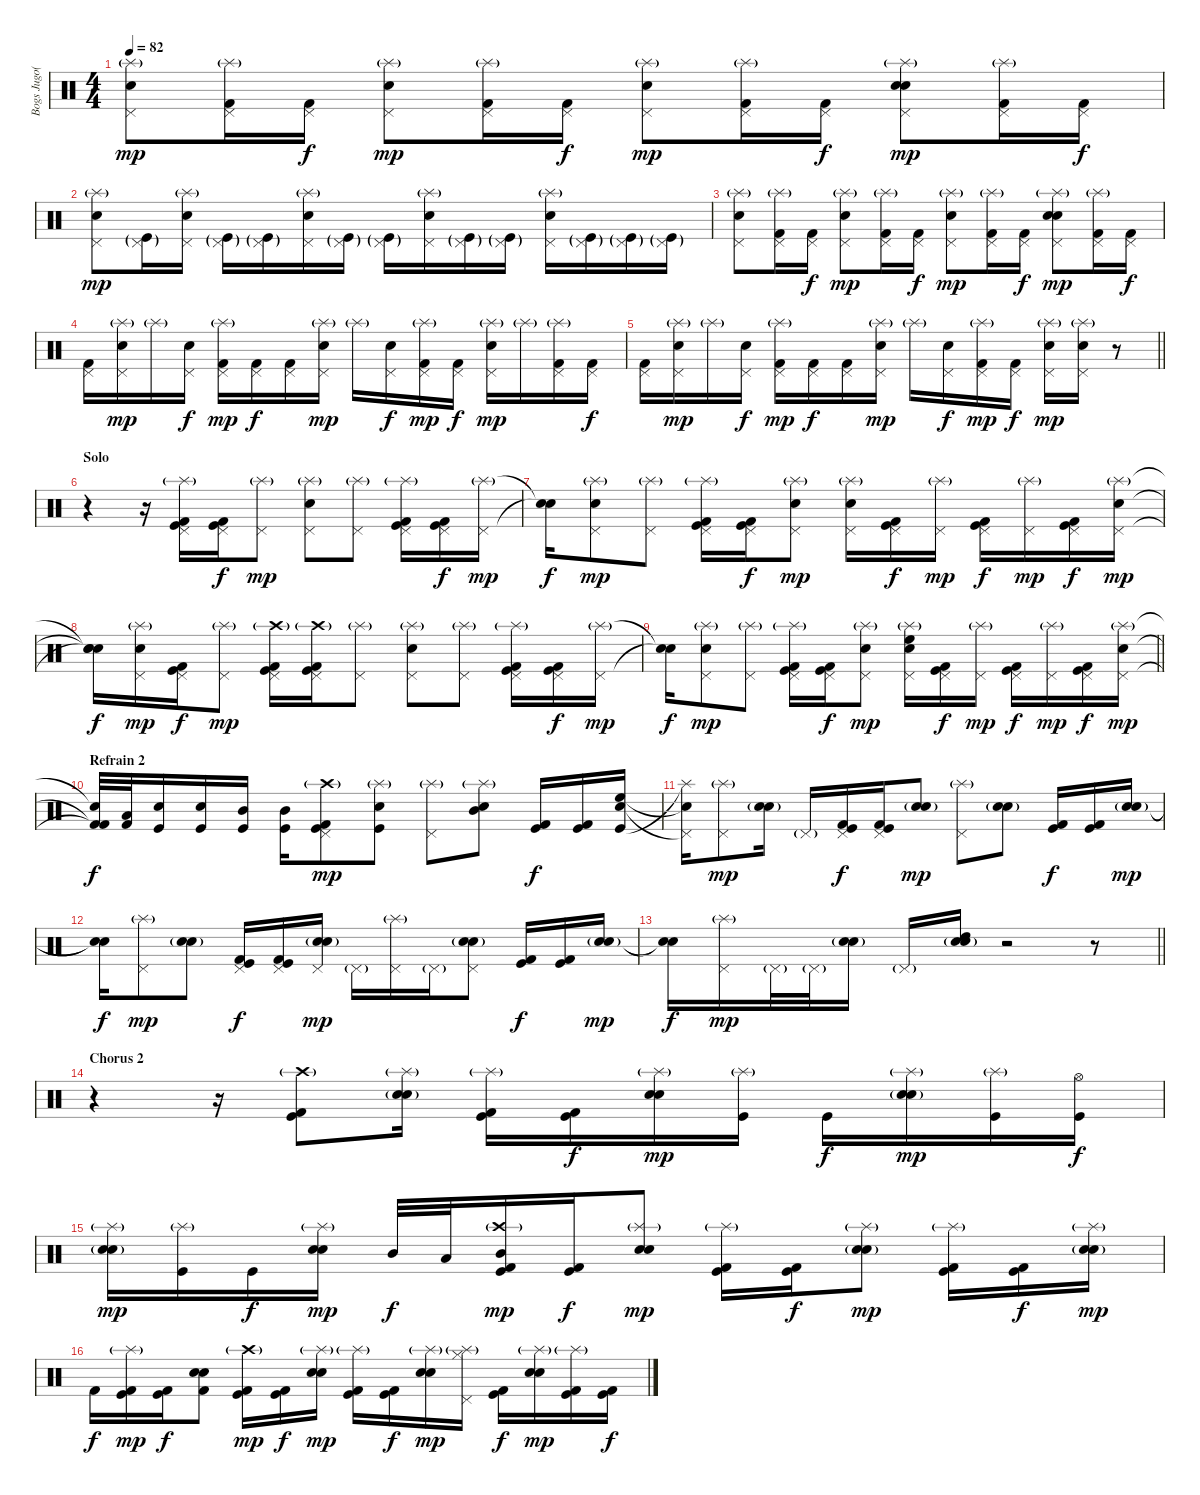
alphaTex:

\track ("Bogs Jugo(Drums)" "Bogs Jugo(") {instrument percussion}
\staff {score}
\articulation defaults
\ts (4 4)
\tempo 82
\clef neutral
\ks c
("Pedal Hi-Hat (hit)" "Electric Snare (hit)" "Splash (hit)"{g}).8{dy mp} ("Pedal Hi-Hat (hit)" "Kick (hit) 2" "Splash (hit)"{g}).16 ("Pedal Hi-Hat (hit)" "Kick (hit) 2").16{dy f} ("Pedal Hi-Hat (hit)" "Electric Snare (hit)" "Splash (hit)"{g}).8{dy mp} ("Pedal Hi-Hat (hit)" "Kick (hit) 2" "Splash (hit)"{g}).16 ("Pedal Hi-Hat (hit)" "Kick (hit) 2").16{dy f} ("Pedal Hi-Hat (hit)" "Electric Snare (hit)" "Splash (hit)"{g}).8{dy mp} ("Pedal Hi-Hat (hit)" "Kick (hit) 2" "Splash (hit)"{g}).16 ("Pedal Hi-Hat (hit)" "Kick (hit) 2").16{dy f} ("Pedal Hi-Hat (hit)" "Electric Snare (hit)" "Electric Snare (hit)" "Splash (hit)"{g}).8{dy mp} ("Pedal Hi-Hat (hit)" "Kick (hit) 2" "Splash (hit)"{g}).16 ("Pedal Hi-Hat (hit)" "Kick (hit) 2").16{dy f} |
("Pedal Hi-Hat (hit)" "Electric Snare (hit)" "Splash (hit)"{g}).8{dy mp} ("Pedal Hi-Hat (hit)"{g} "Kick (hit)"{g}).16 ("Pedal Hi-Hat (hit)" "Electric Snare (hit)" "Splash (hit)"{g}).16 ("Pedal Hi-Hat (hit)"{g} "Kick (hit)"{g}).16 ("Pedal Hi-Hat (hit)"{g} "Kick (hit)"{g}).16 ("Pedal Hi-Hat (hit)" "Electric Snare (hit)" "Splash (hit)"{g}).16 ("Pedal Hi-Hat (hit)"{g} "Kick (hit)"{g}).16 ("Pedal Hi-Hat (hit)"{g} "Kick (hit)"{g}).16 ("Pedal Hi-Hat (hit)" "Electric Snare (hit)" "Splash (hit)"{g}).16 ("Pedal Hi-Hat (hit)"{g} "Kick (hit)"{g}).16 ("Pedal Hi-Hat (hit)"{g} "Kick (hit)"{g}).16 ("Pedal Hi-Hat (hit)" "Electric Snare (hit)" "Splash (hit)"{g}).16 ("Pedal Hi-Hat (hit)"{g} "Kick (hit)"{g}).16 ("Pedal Hi-Hat (hit)"{g} "Kick (hit)"{g}).16 ("Pedal Hi-Hat (hit)"{g} "Kick (hit)"{g}).16 |
("Pedal Hi-Hat (hit)" "Electric Snare (hit)" "Splash (hit)"{g}).8 ("Pedal Hi-Hat (hit)" "Kick (hit) 2" "Splash (hit)"{g}).16 ("Pedal Hi-Hat (hit)" "Kick (hit) 2").16{dy f} ("Pedal Hi-Hat (hit)" "Electric Snare (hit)" "Splash (hit)"{g}).8{dy mp} ("Pedal Hi-Hat (hit)" "Kick (hit) 2" "Splash (hit)"{g}).16 ("Pedal Hi-Hat (hit)" "Kick (hit) 2").16{dy f} ("Pedal Hi-Hat (hit)" "Electric Snare (hit)" "Splash (hit)"{g}).8{dy mp} ("Pedal Hi-Hat (hit)" "Kick (hit) 2" "Splash (hit)"{g}).16 ("Pedal Hi-Hat (hit)" "Kick (hit) 2").16{dy f} ("Pedal Hi-Hat (hit)" "Electric Snare (hit)" "Electric Snare (hit)" "Splash (hit)"{g}).8{dy mp} ("Pedal Hi-Hat (hit)" "Kick (hit) 2" "Splash (hit)"{g}).16 ("Pedal Hi-Hat (hit)" "Kick (hit) 2").16{dy f} |
("Pedal Hi-Hat (hit)" "Kick (hit) 2").16 ("Pedal Hi-Hat (hit)" "Electric Snare (hit)" "Splash (hit)"{g}).16{dy mp} "Splash (hit)"{g}.16 ("Pedal Hi-Hat (hit)" "Electric Snare (hit)").16{dy f} ("Pedal Hi-Hat (hit)" "Kick (hit) 2" "Splash (hit)"{g}).16{dy mp} ("Pedal Hi-Hat (hit)" "Kick (hit) 2").16{dy f} ("Pedal Hi-Hat (hit)" "Kick (hit) 2").16 ("Pedal Hi-Hat (hit)" "Electric Snare (hit)" "Splash (hit)"{g}).16{dy mp} "Splash (hit)"{g}.16 ("Pedal Hi-Hat (hit)" "Electric Snare (hit)").16{dy f} ("Pedal Hi-Hat (hit)" "Kick (hit) 2" "Splash (hit)"{g}).16{dy mp} ("Pedal Hi-Hat (hit)" "Kick (hit) 2").16{dy f} ("Pedal Hi-Hat (hit)" "Electric Snare (hit)" "Splash (hit)"{g}).16{dy mp} "Splash (hit)"{g}.16 ("Pedal Hi-Hat (hit)" "Kick (hit) 2" "Splash (hit)"{g}).16 ("Pedal Hi-Hat (hit)" "Kick (hit) 2").16{dy f} |
\barLineRight lightlight
("Pedal Hi-Hat (hit)" "Kick (hit) 2").16 ("Pedal Hi-Hat (hit)" "Electric Snare (hit)" "Splash (hit)"{g}).16{dy mp} "Splash (hit)"{g}.16 ("Pedal Hi-Hat (hit)" "Electric Snare (hit)").16{dy f} ("Pedal Hi-Hat (hit)" "Kick (hit) 2" "Splash (hit)"{g}).16{dy mp} ("Pedal Hi-Hat (hit)" "Kick (hit) 2").16{dy f} ("Pedal Hi-Hat (hit)" "Kick (hit) 2").16 ("Pedal Hi-Hat (hit)" "Electric Snare (hit)" "Splash (hit)"{g}).16{dy mp} "Splash (hit)"{g}.16 ("Pedal Hi-Hat (hit)" "Electric Snare (hit)").16{dy f} ("Pedal Hi-Hat (hit)" "Kick (hit) 2" "Splash (hit)"{g}).16{dy mp} ("Pedal Hi-Hat (hit)" "Kick (hit) 2").16{dy f} ("Pedal Hi-Hat (hit)" "Electric Snare (hit)" "Splash (hit)"{g}).16{dy mp} ("Pedal Hi-Hat (hit)" "Electric Snare (hit)" "Splash (hit)"{g}).16 r.8 |
\section ("" "Solo")
r.4 r.16 ("Pedal Hi-Hat (hit)" "Kick (hit) 2" "Kick (hit)" "Splash (hit)"{g}).16 ("Pedal Hi-Hat (hit)" "Kick (hit) 2" "Kick (hit)").16{dy f} ("Pedal Hi-Hat (hit)" "Splash (hit)"{g}).8{dy mp} ("Pedal Hi-Hat (hit)" "Electric Snare (hit)" "Splash (hit)"{g}).8 ("Pedal Hi-Hat (hit)" "Splash (hit)"{g}).8 ("Pedal Hi-Hat (hit)" "Kick (hit) 2" "Kick (hit)" "Splash (hit)"{g}).16 ("Pedal Hi-Hat (hit)" "Kick (hit) 2" "Kick (hit)").16{dy f} ("Pedal Hi-Hat (hit)" "Splash (hit)"{g}).16{dy mp} |
("Snare (hit)"{t} "Snare (hit)"{t}).16{dy f} ("Pedal Hi-Hat (hit)" "Electric Snare (hit)" "Splash (hit)"{g}).8{dy mp} ("Pedal Hi-Hat (hit)" "Splash (hit)"{g}).8 ("Pedal Hi-Hat (hit)" "Kick (hit) 2" "Kick (hit)" "Splash (hit)"{g}).16 ("Pedal Hi-Hat (hit)" "Kick (hit) 2" "Kick (hit)").16{dy f} ("Pedal Hi-Hat (hit)" "Electric Snare (hit)" "Splash (hit)"{g}).8{dy mp} ("Pedal Hi-Hat (hit)" "Electric Snare (hit)" "Splash (hit)"{g}).16 ("Pedal Hi-Hat (hit)" "Kick (hit) 2" "Kick (hit)").16{dy f} ("Pedal Hi-Hat (hit)" "Splash (hit)"{g}).16{dy mp} ("Pedal Hi-Hat (hit)" "Kick (hit) 2" "Kick (hit)").16{dy f} ("Pedal Hi-Hat (hit)" "Splash (hit)"{g}).16{dy mp} ("Pedal Hi-Hat (hit)" "Kick (hit) 2" "Kick (hit)").16{dy f} ("Pedal Hi-Hat (hit)" "Electric Snare (hit)" "Splash (hit)"{g}).16{dy mp} |
("Snare (hit)"{t} "Snare (hit)"{t} "Snare (hit)"{t}).16{dy f} ("Pedal Hi-Hat (hit)" "Electric Snare (hit)" "Splash (hit)"{g}).16{dy mp} ("Pedal Hi-Hat (hit)" "Kick (hit) 2" "Kick (hit)").16{dy f} ("Pedal Hi-Hat (hit)" "Splash (hit)"{g}).8{dy mp} ("Pedal Hi-Hat (hit)" "Kick (hit) 2" "Kick (hit)" "Crash high (hit)"{g}).16 ("Pedal Hi-Hat (hit)" "Kick (hit) 2" "Kick (hit)" "Crash high (hit)"{g}).16 ("Pedal Hi-Hat (hit)" "Splash (hit)"{g}).8 ("Pedal Hi-Hat (hit)" "Electric Snare (hit)" "Splash (hit)"{g}).8 ("Pedal Hi-Hat (hit)" "Splash (hit)"{g}).8 ("Pedal Hi-Hat (hit)" "Kick (hit) 2" "Kick (hit)" "Splash (hit)"{g}).16 ("Pedal Hi-Hat (hit)" "Kick (hit) 2" "Kick (hit)").16{dy f} ("Pedal Hi-Hat (hit)" "Splash (hit)"{g}).16{dy mp} |
\barLineRight lightlight
("Snare (hit)"{t} "Snare (hit)"{t}).16{dy f} ("Pedal Hi-Hat (hit)" "Electric Snare (hit)" "Splash (hit)"{g}).8{dy mp} ("Pedal Hi-Hat (hit)" "Splash (hit)"{g}).8 ("Pedal Hi-Hat (hit)" "Kick (hit) 2" "Kick (hit)" "Splash (hit)"{g}).16 ("Pedal Hi-Hat (hit)" "Kick (hit) 2" "Kick (hit)").16{dy f} ("Pedal Hi-Hat (hit)" "Electric Snare (hit)" "Splash (hit)"{g}).8{dy mp} ("Pedal Hi-Hat (hit)" "Electric Snare (hit)" "Splash (hit)"{g} "High Floor Tom (hit)").16 ("Pedal Hi-Hat (hit)" "Kick (hit) 2" "Kick (hit)").16{dy f} ("Pedal Hi-Hat (hit)" "Splash (hit)"{g}).16{dy mp} ("Pedal Hi-Hat (hit)" "Kick (hit) 2" "Kick (hit)").16{dy f} ("Pedal Hi-Hat (hit)" "Splash (hit)"{g}).16{dy mp} ("Pedal Hi-Hat (hit)" "Kick (hit) 2" "Kick (hit)").16{dy f} ("Pedal Hi-Hat (hit)" "Electric Snare (hit)" "Splash (hit)"{g}).16{dy mp} |
\section ("" "Refrain 2")
("Kick (hit) 2"{t} "Kick (hit) 2"{t} "Snare (hit)"{t}).32{dy f} ("Low Tom (hit)" "Kick (hit) 2").32 ("Electric Snare (hit)" "Kick (hit)").16 ("Electric Snare (hit)" "Kick (hit)").16 ("Mid Tom (hit)" "Kick (hit)").16 ("Mid Tom (hit)" "Kick (hit)").16 ("Pedal Hi-Hat (hit)" "Kick (hit) 2" "Kick (hit)" "Crash high (hit)"{g}).8{dy mp} ("Electric Snare (hit)" "Kick (hit)" "Splash (hit)"{g}).8 ("Pedal Hi-Hat (hit)" "Splash (hit)"{g}).8 ("Electric Snare (hit)" "Mid Tom (hit)" "Splash (hit)"{g}).8 ("Kick (hit) 2" "Kick (hit)").16{dy f} ("Kick (hit) 2" "Kick (hit)").16 ("Electric Snare (hit)" "Kick (hit)" "High Floor Tom (hit)").16 |
("Pedal Hi-Hat (hit)"{t} "Splash (hit)"{t} "Snare (hit)"{t}).16 ("Pedal Hi-Hat (hit)" "Splash (hit)"{g}).8{dy mp} ("Electric Snare (hit)" "Snare (hit) 2"{g}).16 "Pedal Hi-Hat (hit)"{g}.16 ("Pedal Hi-Hat (hit)" "Kick (hit) 2" "Kick (hit)").16{dy f} ("Pedal Hi-Hat (hit)" "Kick (hit) 2" "Kick (hit)").16 ("Electric Snare (hit)" "Snare (hit) 2"{g}).8{dy mp} ("Pedal Hi-Hat (hit)" "Splash (hit)"{g}).8 ("Electric Snare (hit)" "Snare (hit) 2"{g}).8 ("Kick (hit) 2" "Kick (hit)").16{dy f} ("Kick (hit) 2" "Kick (hit)").16 ("Electric Snare (hit)" "Snare (hit) 2"{g}).16{dy mp} |
("Snare (hit)"{t} "Snare (hit)"{t}).16{dy f} ("Pedal Hi-Hat (hit)" "Splash (hit)"{g}).8{dy mp} ("Electric Snare (hit)" "Snare (hit) 2"{g}).8 ("Pedal Hi-Hat (hit)" "Kick (hit) 2" "Kick (hit)").16{dy f} ("Pedal Hi-Hat (hit)" "Kick (hit) 2" "Kick (hit)").16 ("Pedal Hi-Hat (hit)" "Electric Snare (hit)" "Snare (hit) 2"{g}).16{dy mp} "Pedal Hi-Hat (hit)"{g}.16 ("Pedal Hi-Hat (hit)" "Splash (hit)"{g}).16 "Pedal Hi-Hat (hit)"{g}.16 ("Pedal Hi-Hat (hit)" "Electric Snare (hit)" "Snare (hit) 2"{g}).8 ("Kick (hit) 2" "Kick (hit)").16{dy f} ("Kick (hit) 2" "Kick (hit)").16 ("Electric Snare (hit)" "Snare (hit) 2"{g}).16{dy mp} |
\barLineRight lightlight
("Snare (hit)"{t} "Snare (hit)"{t}).16{dy f} ("Pedal Hi-Hat (hit)" "Splash (hit)"{g}).16{dy mp} "Pedal Hi-Hat (hit)"{g}.32 "Pedal Hi-Hat (hit)"{g}.32 ("Electric Snare (hit)" "Snare (hit) 2"{g}).16 "Pedal Hi-Hat (hit)"{g}.16 ("Electric Snare (hit)" "Snare (hit) 2"{g} "High Tom (hit)").16 r.2 r.8 |
\section ("" "Chorus 2")
r.4 r.16 ("Crash high (hit)"{g} "Kick (hit) 2" "Kick (hit)").8 ("Electric Snare (hit)" "Snare (hit) 2"{g} "Splash (hit)"{g}).16 ("Kick (hit) 2" "Kick (hit)" "Splash (hit)"{g}).16 ("Kick (hit) 2" "Kick (hit)").16{dy f} ("Electric Snare (hit)" "Snare (hit) 2" "Splash (hit)"{g}).16{dy mp} ("Kick (hit)" "Splash (hit)"{g}).16 "Kick (hit)".16{dy f} ("Electric Snare (hit)" "Snare (hit) 2"{g} "Splash (hit)"{g}).16{dy mp} ("Kick (hit)" "Splash (hit)"{g}).16 ("Kick (hit)" "Hi-Hat (open)").16{dy f} |
("Electric Snare (hit)" "Snare (hit) 2"{g} "Splash (hit)"{g}).16{dy mp} ("Kick (hit)" "Splash (hit)"{g}).16 "Kick (hit)".16{dy f} ("Electric Snare (hit)" "Snare (hit) 2" "Splash (hit)"{g}).16{dy mp} "Mid Tom (hit)".32{dy f} "Low Tom (hit)".32 ("Kick (hit) 2" "Kick (hit)" "Crash high (hit)"{g} "Mid Tom (hit)").16{dy mp} ("Kick (hit) 2" "Kick (hit)").16{dy f} ("Electric Snare (hit)" "Snare (hit) 2" "Splash (hit)"{g}).8{dy mp} ("Kick (hit) 2" "Kick (hit)" "Splash (hit)"{g}).16 ("Kick (hit) 2" "Kick (hit)").16{dy f} ("Electric Snare (hit)" "Snare (hit) 2"{g} "Splash (hit)"{g}).8{dy mp} ("Kick (hit) 2" "Kick (hit)" "Splash (hit)"{g}).16 ("Kick (hit) 2" "Kick (hit)").16{dy f} ("Electric Snare (hit)" "Snare (hit) 2"{g} "Splash (hit)"{g}).16{dy mp} |
"Kick (hit) 2".16{dy f} ("Kick (hit) 2" "Kick (hit)" "Splash (hit)"{g}).16{dy mp} ("Kick (hit) 2" "Kick (hit)").16{dy f} ("Electric Snare (hit)" "Electric Snare (hit)" "Kick (hit) 2").8{bu 30} ("Crash high (hit)"{g} "Kick (hit) 2" "Kick (hit)").16{dy mp} ("Kick (hit) 2" "Kick (hit)").16{dy f} ("Electric Snare (hit)" "Snare (hit) 2" "Splash (hit)"{g}).16{dy mp} ("Kick (hit) 2" "Kick (hit)" "Splash (hit)"{g}).16 ("Kick (hit) 2" "Kick (hit)").16{dy f} ("Electric Snare (hit)" "Snare (hit) 2" "Splash (hit)"{g}).16{dy mp} ("Pedal Hi-Hat (hit)" "Hi-Hat (closed)" "Splash (hit)"{g}).16 ("Kick (hit) 2" "Kick (hit)").16{dy f} ("Electric Snare (hit)" "Snare (hit) 2" "Splash (hit)"{g}).16{dy mp} ("Kick (hit) 2" "Kick (hit)" "Splash (hit)"{g}).16 ("Kick (hit) 2" "Kick (hit)").16{dy f}
